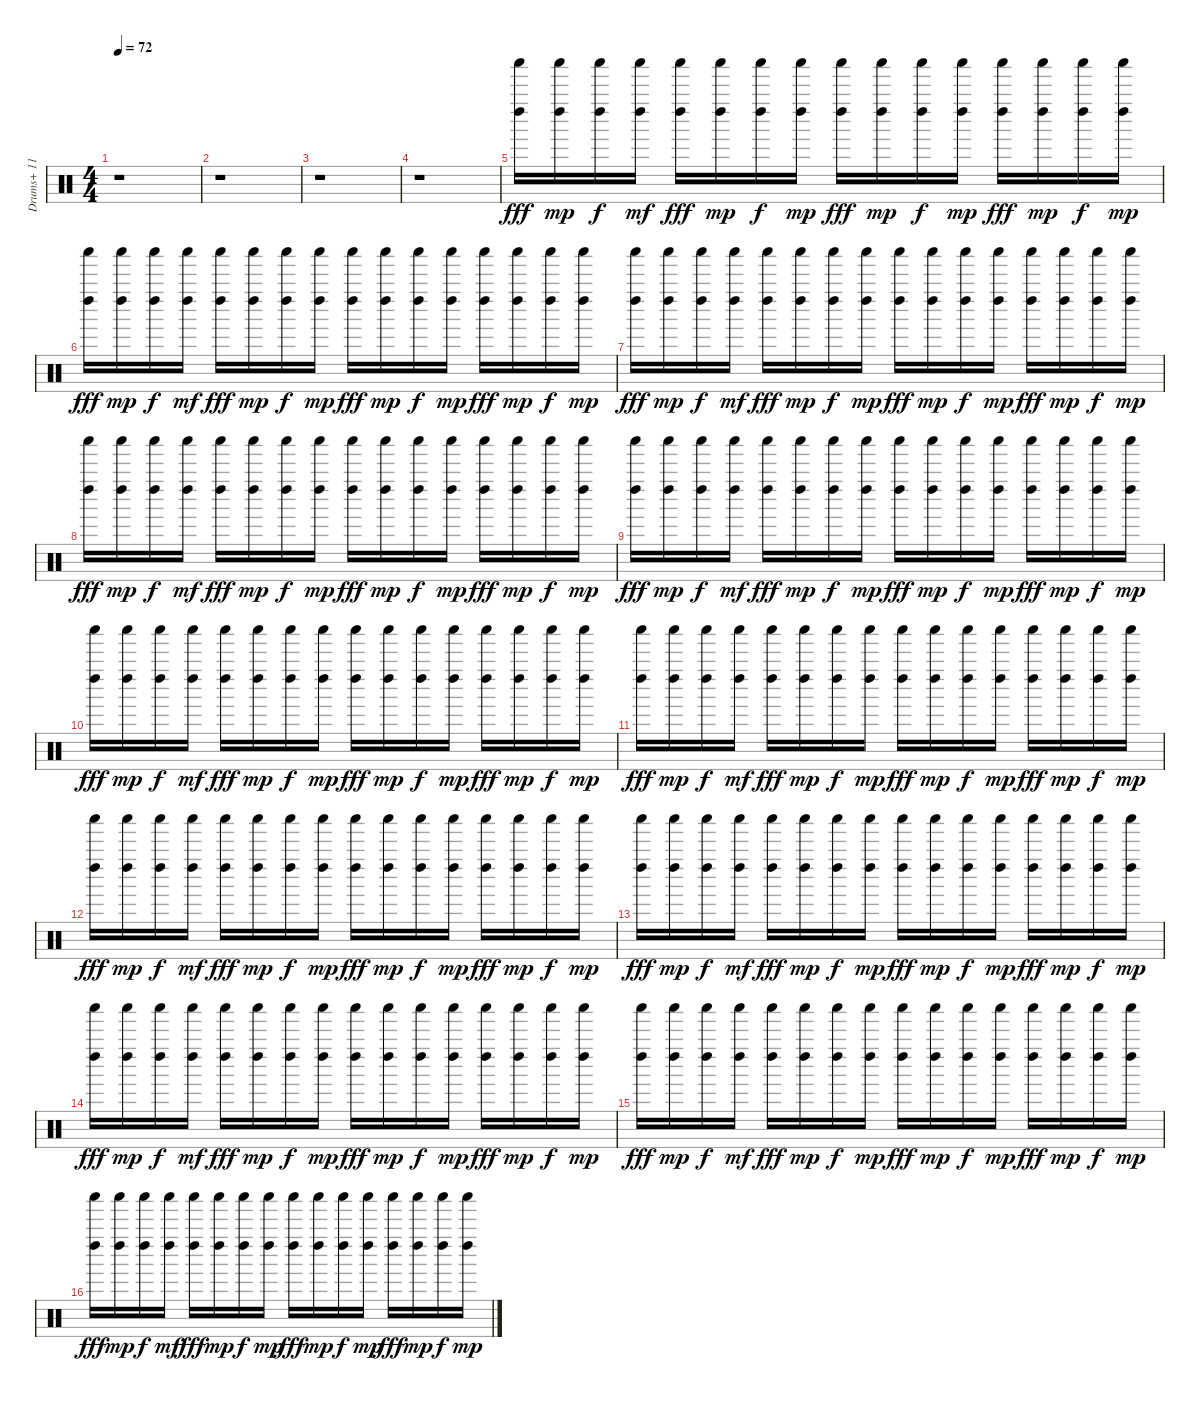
\track ("Drums+ 11" "Drums+ 11") {instrument percussion}
\staff {score}
\articulation defaults
\ts (4 4)
\tempo 72
\clef neutral
\ks c
r.1{dy fff} |
r.1 |
r.1 |
r.1 |
("Shaker (hit)" "Left Maraca (hit)").16 ("Shaker (hit)" "Left Maraca (hit)").16{dy mp} ("Shaker (hit)" "Left Maraca (hit)").16{dy f} ("Shaker (hit)" "Left Maraca (hit)").16{dy mf} ("Shaker (hit)" "Left Maraca (hit)").16{dy fff} ("Shaker (hit)" "Left Maraca (hit)").16{dy mp} ("Shaker (hit)" "Left Maraca (hit)").16{dy f} ("Shaker (hit)" "Left Maraca (hit)").16{dy mp} ("Shaker (hit)" "Left Maraca (hit)").16{dy fff} ("Shaker (hit)" "Left Maraca (hit)").16{dy mp} ("Shaker (hit)" "Left Maraca (hit)").16{dy f} ("Shaker (hit)" "Left Maraca (hit)").16{dy mp} ("Shaker (hit)" "Left Maraca (hit)").16{dy fff} ("Shaker (hit)" "Left Maraca (hit)").16{dy mp} ("Shaker (hit)" "Left Maraca (hit)").16{dy f} ("Shaker (hit)" "Left Maraca (hit)").16{dy mp} |
("Shaker (hit)" "Left Maraca (hit)").16{dy fff} ("Shaker (hit)" "Left Maraca (hit)").16{dy mp} ("Shaker (hit)" "Left Maraca (hit)").16{dy f} ("Shaker (hit)" "Left Maraca (hit)").16{dy mf} ("Shaker (hit)" "Left Maraca (hit)").16{dy fff} ("Shaker (hit)" "Left Maraca (hit)").16{dy mp} ("Shaker (hit)" "Left Maraca (hit)").16{dy f} ("Shaker (hit)" "Left Maraca (hit)").16{dy mp} ("Shaker (hit)" "Left Maraca (hit)").16{dy fff} ("Shaker (hit)" "Left Maraca (hit)").16{dy mp} ("Shaker (hit)" "Left Maraca (hit)").16{dy f} ("Shaker (hit)" "Left Maraca (hit)").16{dy mp} ("Shaker (hit)" "Left Maraca (hit)").16{dy fff} ("Shaker (hit)" "Left Maraca (hit)").16{dy mp} ("Shaker (hit)" "Left Maraca (hit)").16{dy f} ("Shaker (hit)" "Left Maraca (hit)").16{dy mp} |
("Shaker (hit)" "Left Maraca (hit)").16{dy fff} ("Shaker (hit)" "Left Maraca (hit)").16{dy mp} ("Shaker (hit)" "Left Maraca (hit)").16{dy f} ("Shaker (hit)" "Left Maraca (hit)").16{dy mf} ("Shaker (hit)" "Left Maraca (hit)").16{dy fff} ("Shaker (hit)" "Left Maraca (hit)").16{dy mp} ("Shaker (hit)" "Left Maraca (hit)").16{dy f} ("Shaker (hit)" "Left Maraca (hit)").16{dy mp} ("Shaker (hit)" "Left Maraca (hit)").16{dy fff} ("Shaker (hit)" "Left Maraca (hit)").16{dy mp} ("Shaker (hit)" "Left Maraca (hit)").16{dy f} ("Shaker (hit)" "Left Maraca (hit)").16{dy mp} ("Shaker (hit)" "Left Maraca (hit)").16{dy fff} ("Shaker (hit)" "Left Maraca (hit)").16{dy mp} ("Shaker (hit)" "Left Maraca (hit)").16{dy f} ("Shaker (hit)" "Left Maraca (hit)").16{dy mp} |
("Shaker (hit)" "Left Maraca (hit)").16{dy fff} ("Shaker (hit)" "Left Maraca (hit)").16{dy mp} ("Shaker (hit)" "Left Maraca (hit)").16{dy f} ("Shaker (hit)" "Left Maraca (hit)").16{dy mf} ("Shaker (hit)" "Left Maraca (hit)").16{dy fff} ("Shaker (hit)" "Left Maraca (hit)").16{dy mp} ("Shaker (hit)" "Left Maraca (hit)").16{dy f} ("Shaker (hit)" "Left Maraca (hit)").16{dy mp} ("Shaker (hit)" "Left Maraca (hit)").16{dy fff} ("Shaker (hit)" "Left Maraca (hit)").16{dy mp} ("Shaker (hit)" "Left Maraca (hit)").16{dy f} ("Shaker (hit)" "Left Maraca (hit)").16{dy mp} ("Shaker (hit)" "Left Maraca (hit)").16{dy fff} ("Shaker (hit)" "Left Maraca (hit)").16{dy mp} ("Shaker (hit)" "Left Maraca (hit)").16{dy f} ("Shaker (hit)" "Left Maraca (hit)").16{dy mp} |
("Shaker (hit)" "Left Maraca (hit)").16{dy fff} ("Shaker (hit)" "Left Maraca (hit)").16{dy mp} ("Shaker (hit)" "Left Maraca (hit)").16{dy f} ("Shaker (hit)" "Left Maraca (hit)").16{dy mf} ("Shaker (hit)" "Left Maraca (hit)").16{dy fff} ("Shaker (hit)" "Left Maraca (hit)").16{dy mp} ("Shaker (hit)" "Left Maraca (hit)").16{dy f} ("Shaker (hit)" "Left Maraca (hit)").16{dy mp} ("Shaker (hit)" "Left Maraca (hit)").16{dy fff} ("Shaker (hit)" "Left Maraca (hit)").16{dy mp} ("Shaker (hit)" "Left Maraca (hit)").16{dy f} ("Shaker (hit)" "Left Maraca (hit)").16{dy mp} ("Shaker (hit)" "Left Maraca (hit)").16{dy fff} ("Shaker (hit)" "Left Maraca (hit)").16{dy mp} ("Shaker (hit)" "Left Maraca (hit)").16{dy f} ("Shaker (hit)" "Left Maraca (hit)").16{dy mp} |
("Shaker (hit)" "Left Maraca (hit)").16{dy fff} ("Shaker (hit)" "Left Maraca (hit)").16{dy mp} ("Shaker (hit)" "Left Maraca (hit)").16{dy f} ("Shaker (hit)" "Left Maraca (hit)").16{dy mf} ("Shaker (hit)" "Left Maraca (hit)").16{dy fff} ("Shaker (hit)" "Left Maraca (hit)").16{dy mp} ("Shaker (hit)" "Left Maraca (hit)").16{dy f} ("Shaker (hit)" "Left Maraca (hit)").16{dy mp} ("Shaker (hit)" "Left Maraca (hit)").16{dy fff} ("Shaker (hit)" "Left Maraca (hit)").16{dy mp} ("Shaker (hit)" "Left Maraca (hit)").16{dy f} ("Shaker (hit)" "Left Maraca (hit)").16{dy mp} ("Shaker (hit)" "Left Maraca (hit)").16{dy fff} ("Shaker (hit)" "Left Maraca (hit)").16{dy mp} ("Shaker (hit)" "Left Maraca (hit)").16{dy f} ("Shaker (hit)" "Left Maraca (hit)").16{dy mp} |
("Shaker (hit)" "Left Maraca (hit)").16{dy fff} ("Shaker (hit)" "Left Maraca (hit)").16{dy mp} ("Shaker (hit)" "Left Maraca (hit)").16{dy f} ("Shaker (hit)" "Left Maraca (hit)").16{dy mf} ("Shaker (hit)" "Left Maraca (hit)").16{dy fff} ("Shaker (hit)" "Left Maraca (hit)").16{dy mp} ("Shaker (hit)" "Left Maraca (hit)").16{dy f} ("Shaker (hit)" "Left Maraca (hit)").16{dy mp} ("Shaker (hit)" "Left Maraca (hit)").16{dy fff} ("Shaker (hit)" "Left Maraca (hit)").16{dy mp} ("Shaker (hit)" "Left Maraca (hit)").16{dy f} ("Shaker (hit)" "Left Maraca (hit)").16{dy mp} ("Shaker (hit)" "Left Maraca (hit)").16{dy fff} ("Shaker (hit)" "Left Maraca (hit)").16{dy mp} ("Shaker (hit)" "Left Maraca (hit)").16{dy f} ("Shaker (hit)" "Left Maraca (hit)").16{dy mp} |
("Shaker (hit)" "Left Maraca (hit)").16{dy fff} ("Shaker (hit)" "Left Maraca (hit)").16{dy mp} ("Shaker (hit)" "Left Maraca (hit)").16{dy f} ("Shaker (hit)" "Left Maraca (hit)").16{dy mf} ("Shaker (hit)" "Left Maraca (hit)").16{dy fff} ("Shaker (hit)" "Left Maraca (hit)").16{dy mp} ("Shaker (hit)" "Left Maraca (hit)").16{dy f} ("Shaker (hit)" "Left Maraca (hit)").16{dy mp} ("Shaker (hit)" "Left Maraca (hit)").16{dy fff} ("Shaker (hit)" "Left Maraca (hit)").16{dy mp} ("Shaker (hit)" "Left Maraca (hit)").16{dy f} ("Shaker (hit)" "Left Maraca (hit)").16{dy mp} ("Shaker (hit)" "Left Maraca (hit)").16{dy fff} ("Shaker (hit)" "Left Maraca (hit)").16{dy mp} ("Shaker (hit)" "Left Maraca (hit)").16{dy f} ("Shaker (hit)" "Left Maraca (hit)").16{dy mp} |
("Shaker (hit)" "Left Maraca (hit)").16{dy fff} ("Shaker (hit)" "Left Maraca (hit)").16{dy mp} ("Shaker (hit)" "Left Maraca (hit)").16{dy f} ("Shaker (hit)" "Left Maraca (hit)").16{dy mf} ("Shaker (hit)" "Left Maraca (hit)").16{dy fff} ("Shaker (hit)" "Left Maraca (hit)").16{dy mp} ("Shaker (hit)" "Left Maraca (hit)").16{dy f} ("Shaker (hit)" "Left Maraca (hit)").16{dy mp} ("Shaker (hit)" "Left Maraca (hit)").16{dy fff} ("Shaker (hit)" "Left Maraca (hit)").16{dy mp} ("Shaker (hit)" "Left Maraca (hit)").16{dy f} ("Shaker (hit)" "Left Maraca (hit)").16{dy mp} ("Shaker (hit)" "Left Maraca (hit)").16{dy fff} ("Shaker (hit)" "Left Maraca (hit)").16{dy mp} ("Shaker (hit)" "Left Maraca (hit)").16{dy f} ("Shaker (hit)" "Left Maraca (hit)").16{dy mp} |
("Shaker (hit)" "Left Maraca (hit)").16{dy fff} ("Shaker (hit)" "Left Maraca (hit)").16{dy mp} ("Shaker (hit)" "Left Maraca (hit)").16{dy f} ("Shaker (hit)" "Left Maraca (hit)").16{dy mf} ("Shaker (hit)" "Left Maraca (hit)").16{dy fff} ("Shaker (hit)" "Left Maraca (hit)").16{dy mp} ("Shaker (hit)" "Left Maraca (hit)").16{dy f} ("Shaker (hit)" "Left Maraca (hit)").16{dy mp} ("Shaker (hit)" "Left Maraca (hit)").16{dy fff} ("Shaker (hit)" "Left Maraca (hit)").16{dy mp} ("Shaker (hit)" "Left Maraca (hit)").16{dy f} ("Shaker (hit)" "Left Maraca (hit)").16{dy mp} ("Shaker (hit)" "Left Maraca (hit)").16{dy fff} ("Shaker (hit)" "Left Maraca (hit)").16{dy mp} ("Shaker (hit)" "Left Maraca (hit)").16{dy f} ("Shaker (hit)" "Left Maraca (hit)").16{dy mp} |
("Shaker (hit)" "Left Maraca (hit)").16{dy fff} ("Shaker (hit)" "Left Maraca (hit)").16{dy mp} ("Shaker (hit)" "Left Maraca (hit)").16{dy f} ("Shaker (hit)" "Left Maraca (hit)").16{dy mf} ("Shaker (hit)" "Left Maraca (hit)").16{dy fff} ("Shaker (hit)" "Left Maraca (hit)").16{dy mp} ("Shaker (hit)" "Left Maraca (hit)").16{dy f} ("Shaker (hit)" "Left Maraca (hit)").16{dy mp} ("Shaker (hit)" "Left Maraca (hit)").16{dy fff} ("Shaker (hit)" "Left Maraca (hit)").16{dy mp} ("Shaker (hit)" "Left Maraca (hit)").16{dy f} ("Shaker (hit)" "Left Maraca (hit)").16{dy mp} ("Shaker (hit)" "Left Maraca (hit)").16{dy fff} ("Shaker (hit)" "Left Maraca (hit)").16{dy mp} ("Shaker (hit)" "Left Maraca (hit)").16{dy f} ("Shaker (hit)" "Left Maraca (hit)").16{dy mp} |
("Shaker (hit)" "Left Maraca (hit)").16{dy fff} ("Shaker (hit)" "Left Maraca (hit)").16{dy mp} ("Shaker (hit)" "Left Maraca (hit)").16{dy f} ("Shaker (hit)" "Left Maraca (hit)").16{dy mf} ("Shaker (hit)" "Left Maraca (hit)").16{dy fff} ("Shaker (hit)" "Left Maraca (hit)").16{dy mp} ("Shaker (hit)" "Left Maraca (hit)").16{dy f} ("Shaker (hit)" "Left Maraca (hit)").16{dy mp} ("Shaker (hit)" "Left Maraca (hit)").16{dy fff} ("Shaker (hit)" "Left Maraca (hit)").16{dy mp} ("Shaker (hit)" "Left Maraca (hit)").16{dy f} ("Shaker (hit)" "Left Maraca (hit)").16{dy mp} ("Shaker (hit)" "Left Maraca (hit)").16{dy fff} ("Shaker (hit)" "Left Maraca (hit)").16{dy mp} ("Shaker (hit)" "Left Maraca (hit)").16{dy f} ("Shaker (hit)" "Left Maraca (hit)").16{dy mp}
